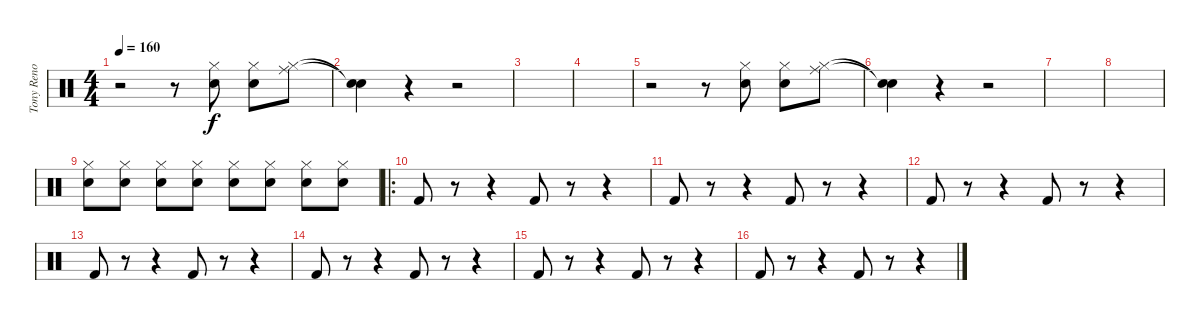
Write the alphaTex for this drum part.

\track ("Tony Reno" "Tony Reno") {instrument percussion}
\staff {score}
\articulation defaults
\ts (4 4)
\tempo 160
\clef neutral
\ks c
r.2{dy f} r.8 ("Hi-Hat (closed)" "Snare (hit) 2").8 ("Hi-Hat (closed)" "Snare (hit) 2").8 ("Ride (middle)" "Hi-Hat (closed)").8 |
("Snare (hit)"{t} "Snare (hit)"{t}).4 r.4 r.2 |
|
|
r.2 r.8 ("Hi-Hat (closed)" "Snare (hit) 2").8 ("Hi-Hat (closed)" "Snare (hit) 2").8 ("Ride (middle)" "Hi-Hat (closed)").8 |
("Snare (hit)"{t} "Snare (hit)"{t}).4 r.4 r.2 |
|
|
("Hi-Hat (closed)" "Snare (hit) 2").8 ("Hi-Hat (closed)" "Snare (hit) 2").8 ("Hi-Hat (closed)" "Snare (hit) 2").8 ("Hi-Hat (closed)" "Snare (hit) 2").8 ("Hi-Hat (closed)" "Snare (hit) 2").8 ("Hi-Hat (closed)" "Snare (hit) 2").8 ("Hi-Hat (closed)" "Snare (hit) 2").8 ("Hi-Hat (closed)" "Snare (hit) 2").8 |
\ro "Kick (hit) 2".8
r.8 r.4 "Kick (hit) 2".8 r.8 r.4 |
"Kick (hit) 2".8 r.8 r.4 "Kick (hit) 2".8 r.8 r.4 |
"Kick (hit) 2".8 r.8 r.4 "Kick (hit) 2".8 r.8 r.4 |
"Kick (hit) 2".8 r.8 r.4 "Kick (hit) 2".8 r.8 r.4 |
"Kick (hit) 2".8 r.8 r.4 "Kick (hit) 2".8 r.8 r.4 |
"Kick (hit) 2".8 r.8 r.4 "Kick (hit) 2".8 r.8 r.4 |
"Kick (hit) 2".8 r.8 r.4 "Kick (hit) 2".8 r.8 r.4
